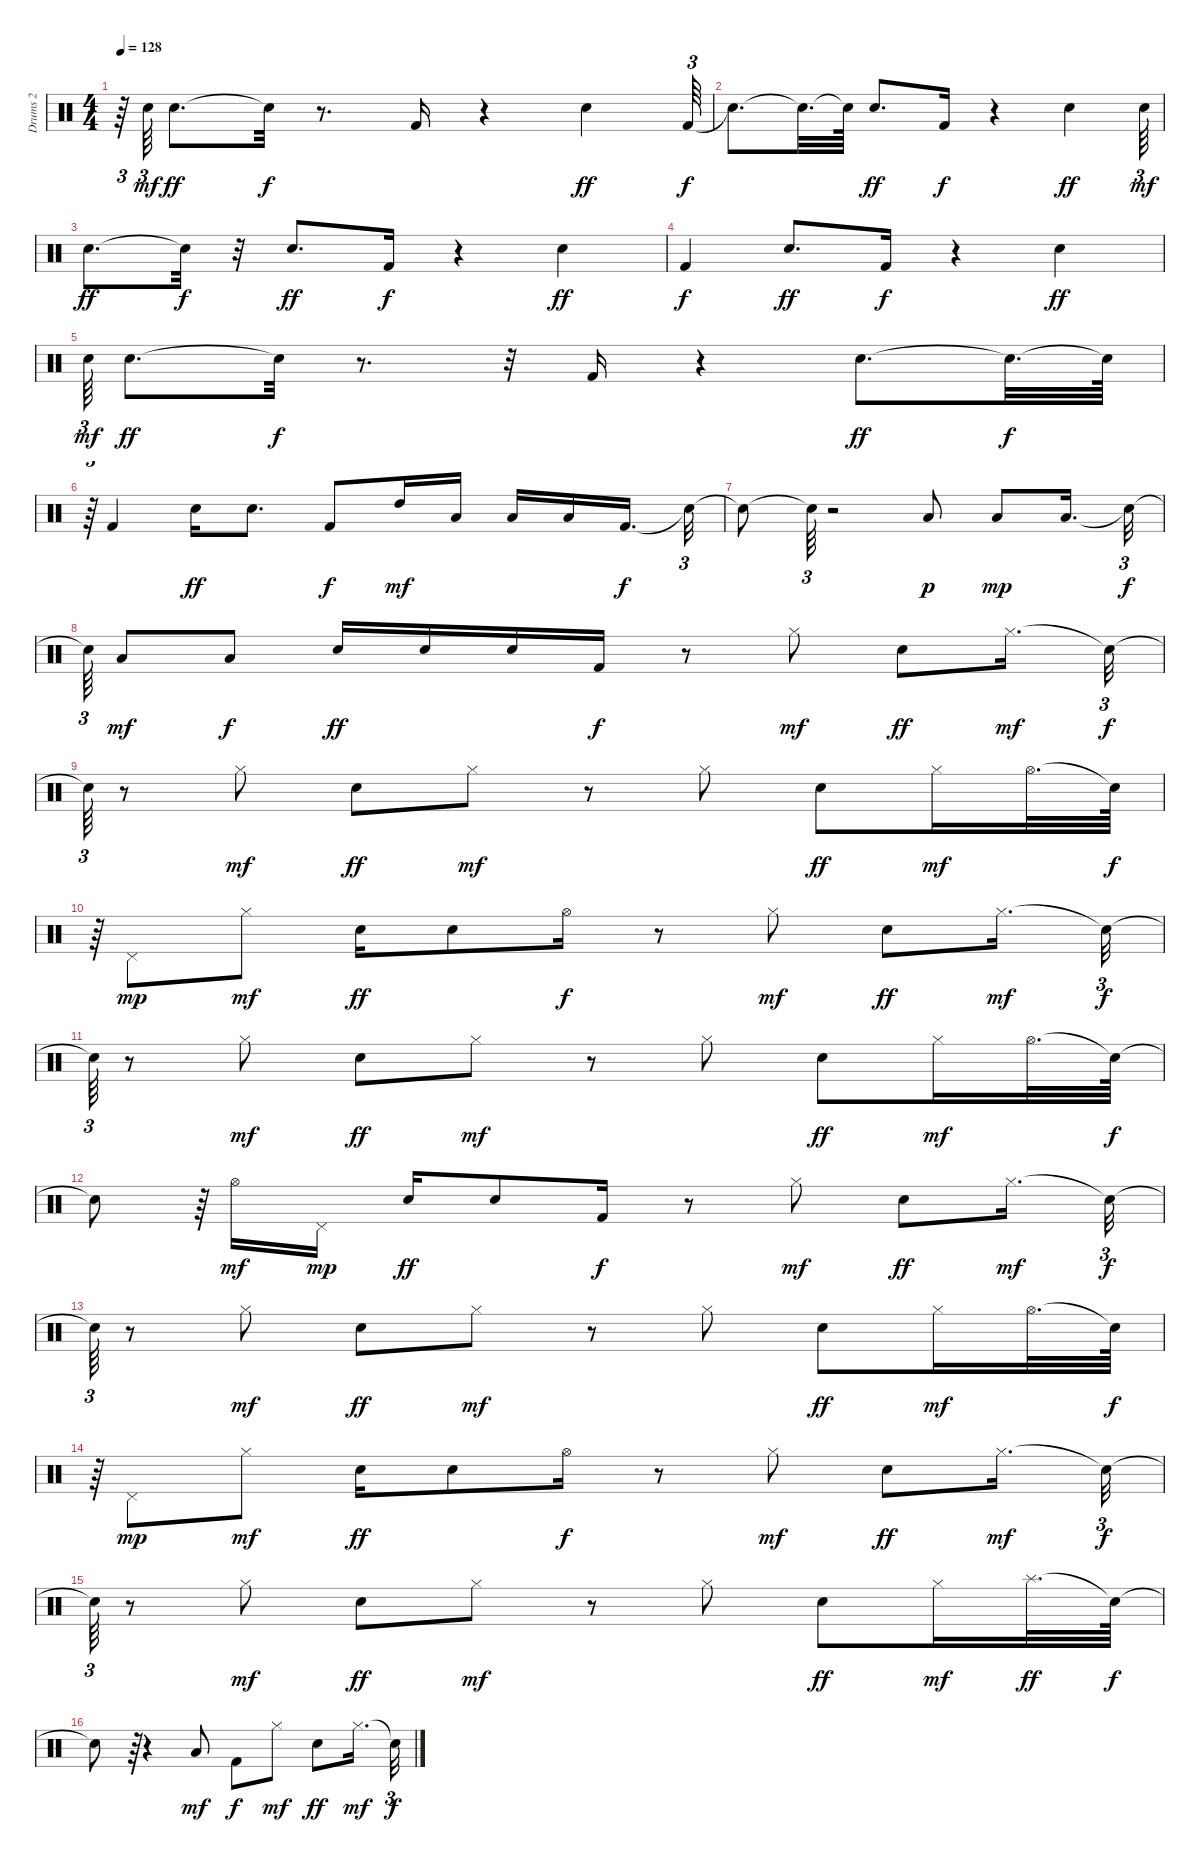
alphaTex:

\track ("Drums 2                             " "Drums 2   ") {instrument percussion}
\staff {score}
\articulation defaults
\ts (4 4)
\tempo 128
\clef neutral
\ks c
r.64{tu (3 2) dy f} "Snare (hit) 2".64{tu (3 2) dy mf} "Snare (hit) 2".8{d dy ff} "Snare (hit)"{t}.32{dy f} r.8{d} "Kick (hit) 2".16 r.4 "Snare (hit) 2".4{dy ff} "Kick (hit) 2".64{tu (3 2) dy f} |
"Snare (hit)"{t}.8{d} "Snare (hit)"{t}.32{d} "Snare (hit)"{t}.64 "Snare (hit) 2".8{d dy ff} "Kick (hit) 2".16{dy f} r.4 "Snare (hit) 2".4{dy ff} "Snare (hit) 2".64{tu (3 2) dy mf} |
"Snare (hit) 2".8{d dy ff} "Snare (hit)"{t}.32{dy f} r.32 "Snare (hit) 2".8{d dy ff} "Kick (hit) 2".16{dy f} r.4 "Snare (hit) 2".4{dy ff} |
"Kick (hit) 2".4{dy f} "Snare (hit) 2".8{d dy ff} "Kick (hit) 2".16{dy f} r.4 "Snare (hit) 2".4{dy ff} |
"Snare (hit) 2".64{tu (3 2) dy mf} "Snare (hit) 2".8{d dy ff} "Snare (hit)"{t}.32{dy f} r.8{d} r.32 "Kick (hit) 2".16 r.4 "Snare (hit) 2".8{d dy ff} "Snare (hit)"{t}.32{d dy f} "Snare (hit)"{t}.64 |
r.64{tu (3 2)} "Kick (hit) 2".4 "Snare (hit) 2".16{dy ff} "Snare (hit) 2".8{d} "Kick (hit) 2".8{dy f} "High Tom (hit)".16{dy mf} "Low Floor Tom (hit)".16 "Low Tom (hit)".16 "Low Floor Tom (hit)".16 "Kick (hit) 2".16{d dy f} "Snare (hit)"{t}.32{tu (3 2)} |
"Snare (hit)"{t}.8 "Snare (hit)"{t}.64{tu (3 2)} r.2 "Low Floor Tom (hit)".8{dy p} "Low Floor Tom (hit)".8{dy mp} "Low Floor Tom (hit)".16{d} "Snare (hit)"{t}.32{tu (3 2) dy f} |
"Snare (hit)"{t}.64{tu (3 2)} "Low Floor Tom (hit)".8{dy mf} "Low Floor Tom (hit)".8{dy f} "Snare (hit) 2".16{dy ff} "Snare (hit) 2".16 "Snare (hit) 2".16 "Kick (hit) 2".16{dy f} r.8 "Hi-Hat (closed)".8{dy mf} "Snare (hit) 2".8{dy ff} "Hi-Hat (closed)".16{d dy mf} "Snare (hit)"{t}.32{tu (3 2) dy f} |
"Snare (hit)"{t}.64{tu (3 2)} r.8 "Hi-Hat (closed)".8{dy mf} "Snare (hit) 2".8{dy ff} "Hi-Hat (closed)".8{dy mf} r.8 "Hi-Hat (closed)".8 "Snare (hit) 2".8{dy ff} "Hi-Hat (closed)".16{dy mf} "Hi-Hat (open)".32{d} "Snare (hit)"{t}.64{dy f} |
r.64{tu (3 2)} "Pedal Hi-Hat (hit)".8{dy mp} "Hi-Hat (closed)".8{dy mf} "Snare (hit) 2".16{dy ff} "Snare (hit) 2".8 "Hi-Hat (open)".16{dy f} r.8 "Hi-Hat (closed)".8{dy mf} "Snare (hit) 2".8{dy ff} "Hi-Hat (closed)".16{d dy mf} "Snare (hit)"{t}.32{tu (3 2) dy f} |
"Snare (hit)"{t}.64{tu (3 2)} r.8 "Hi-Hat (closed)".8{dy mf} "Snare (hit) 2".8{dy ff} "Hi-Hat (closed)".8{dy mf} r.8 "Hi-Hat (closed)".8 "Snare (hit) 2".8{dy ff} "Hi-Hat (closed)".16{dy mf} "Hi-Hat (open)".32{d} "Snare (hit)"{t}.64{dy f} |
"Snare (hit)"{t}.8 r.64{tu (3 2)} "Hi-Hat (open)".16{dy mf} "Pedal Hi-Hat (hit)".16{dy mp} "Snare (hit) 2".16{dy ff} "Snare (hit) 2".8 "Kick (hit) 2".16{dy f} r.8 "Hi-Hat (closed)".8{dy mf} "Snare (hit) 2".8{dy ff} "Hi-Hat (closed)".16{d dy mf} "Snare (hit)"{t}.32{tu (3 2) dy f} |
"Snare (hit)"{t}.64{tu (3 2)} r.8 "Hi-Hat (closed)".8{dy mf} "Snare (hit) 2".8{dy ff} "Hi-Hat (closed)".8{dy mf} r.8 "Hi-Hat (closed)".8 "Snare (hit) 2".8{dy ff} "Hi-Hat (closed)".16{dy mf} "Hi-Hat (open)".32{d} "Snare (hit)"{t}.64{dy f} |
r.64{tu (3 2)} "Pedal Hi-Hat (hit)".8{dy mp} "Hi-Hat (closed)".8{dy mf} "Snare (hit) 2".16{dy ff} "Snare (hit) 2".8 "Hi-Hat (open)".16{dy f} r.8 "Hi-Hat (closed)".8{dy mf} "Snare (hit) 2".8{dy ff} "Hi-Hat (closed)".16{d dy mf} "Snare (hit)"{t}.32{tu (3 2) dy f} |
"Snare (hit)"{t}.64{tu (3 2)} r.8 "Hi-Hat (closed)".8{dy mf} "Snare (hit) 2".8{dy ff} "Hi-Hat (closed)".8{dy mf} r.8 "Hi-Hat (closed)".8 "Snare (hit) 2".8{dy ff} "Hi-Hat (closed)".16{dy mf} "Splash (hit)".32{d dy ff} "Snare (hit)"{t}.64{dy f} |
"Snare (hit)"{t}.8 r.64{tu (3 2)} r.4 "Low Tom (hit)".8{dy mf} "Kick (hit) 2".8{dy f} "Hi-Hat (closed)".8{dy mf} "Snare (hit) 2".8{dy ff} "Hi-Hat (closed)".16{d dy mf} "Snare (hit)"{t}.32{tu (3 2) dy f}
